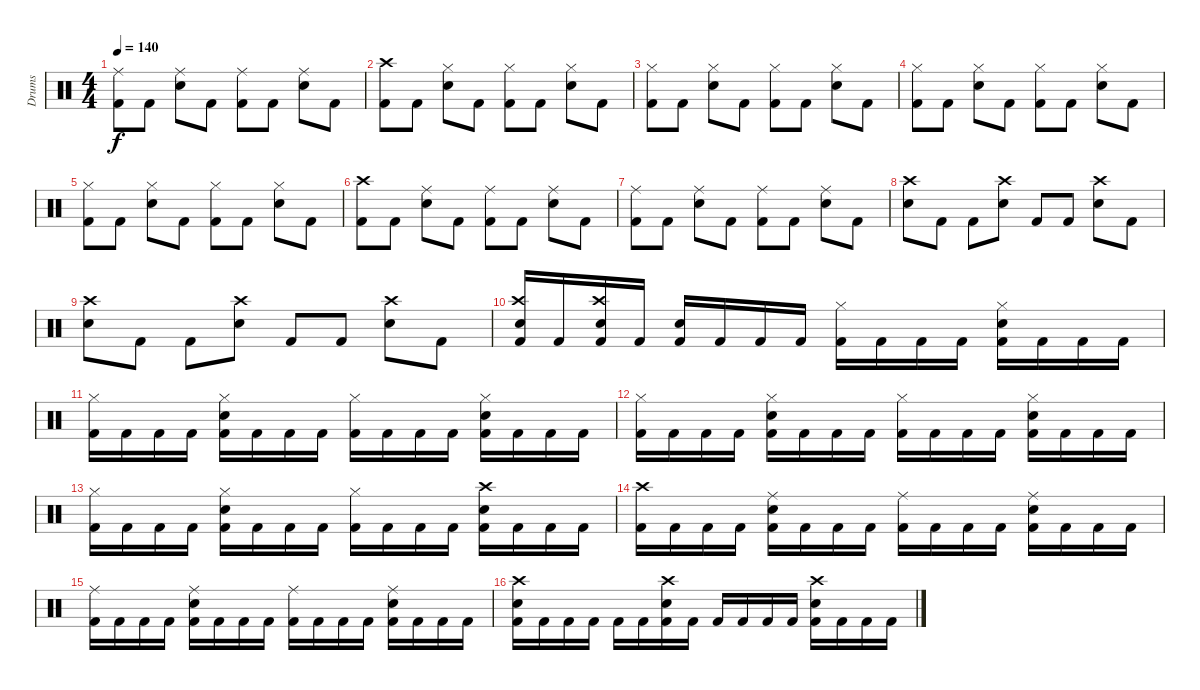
\track ("Drums" "Drums") {instrument percussion}
\staff {score}
\articulation defaults
\ts (4 4)
\tempo 140
\clef neutral
\ks c
("Ride (middle)" "Kick (hit) 2").8{dy f} "Kick (hit) 2".8 ("Ride (middle)" "Electric Snare (hit)").8 "Kick (hit) 2".8 ("Ride (middle)" "Kick (hit) 2").8 "Kick (hit) 2".8 ("Ride (middle)" "Electric Snare (hit)").8 "Kick (hit) 2".8 |
("Crash high (hit)" "Kick (hit) 2").8 "Kick (hit) 2".8 ("Hi-Hat (closed)" "Electric Snare (hit)").8 "Kick (hit) 2".8 ("Hi-Hat (closed)" "Kick (hit) 2").8 "Kick (hit) 2".8 ("Hi-Hat (closed)" "Electric Snare (hit)").8 "Kick (hit) 2".8 |
("Hi-Hat (closed)" "Kick (hit) 2").8 "Kick (hit) 2".8 ("Hi-Hat (closed)" "Electric Snare (hit)").8 "Kick (hit) 2".8 ("Hi-Hat (closed)" "Kick (hit) 2").8 "Kick (hit) 2".8 ("Hi-Hat (closed)" "Electric Snare (hit)").8 "Kick (hit) 2".8 |
("Hi-Hat (closed)" "Kick (hit) 2").8 "Kick (hit) 2".8 ("Hi-Hat (closed)" "Electric Snare (hit)").8 "Kick (hit) 2".8 ("Hi-Hat (closed)" "Kick (hit) 2").8 "Kick (hit) 2".8 ("Hi-Hat (closed)" "Electric Snare (hit)").8 "Kick (hit) 2".8 |
("Hi-Hat (closed)" "Kick (hit) 2").8 "Kick (hit) 2".8 ("Hi-Hat (closed)" "Electric Snare (hit)").8 "Kick (hit) 2".8 ("Hi-Hat (closed)" "Kick (hit) 2").8 "Kick (hit) 2".8 ("Hi-Hat (closed)" "Electric Snare (hit)").8 "Kick (hit) 2".8 |
("Crash high (hit)" "Kick (hit) 2").8 "Kick (hit) 2".8 ("Ride (middle)" "Electric Snare (hit)").8 "Kick (hit) 2".8 ("Ride (middle)" "Kick (hit) 2").8 "Kick (hit) 2".8 ("Ride (middle)" "Electric Snare (hit)").8 "Kick (hit) 2".8 |
("Ride (middle)" "Kick (hit) 2").8 "Kick (hit) 2".8 ("Ride (middle)" "Electric Snare (hit)").8 "Kick (hit) 2".8 ("Ride (middle)" "Kick (hit) 2").8 "Kick (hit) 2".8 ("Ride (middle)" "Electric Snare (hit)").8 "Kick (hit) 2".8 |
("Crash high (hit)" "Electric Snare (hit)").8 "Kick (hit) 2".8 "Kick (hit) 2".8 ("Crash high (hit)" "Electric Snare (hit)").8 "Kick (hit) 2".8 "Kick (hit) 2".8 ("Crash high (hit)" "Electric Snare (hit)").8 "Kick (hit) 2".8 |
("Crash high (hit)" "Electric Snare (hit)").8 "Kick (hit) 2".8 "Kick (hit) 2".8 ("Crash high (hit)" "Electric Snare (hit)").8 "Kick (hit) 2".8 "Kick (hit) 2".8 ("Crash high (hit)" "Electric Snare (hit)").8 "Kick (hit) 2".8 |
("Crash high (hit)" "Snare (hit) 2" "Kick (hit) 2").16 "Kick (hit) 2".16 ("Crash high (hit)" "Snare (hit) 2" "Kick (hit) 2").16 "Kick (hit) 2".16 ("Electric Snare (hit)" "Kick (hit) 2").16 "Kick (hit) 2".16 "Kick (hit) 2".16 "Kick (hit) 2".16 ("Hi-Hat (closed)" "Kick (hit) 2").16 "Kick (hit) 2".16 "Kick (hit) 2".16 "Kick (hit) 2".16 ("Hi-Hat (closed)" "Electric Snare (hit)" "Kick (hit) 2").16 "Kick (hit) 2".16 "Kick (hit) 2".16 "Kick (hit) 2".16 |
("Hi-Hat (closed)" "Kick (hit) 2").16 "Kick (hit) 2".16 "Kick (hit) 2".16 "Kick (hit) 2".16 ("Hi-Hat (closed)" "Electric Snare (hit)" "Kick (hit) 2").16 "Kick (hit) 2".16 "Kick (hit) 2".16 "Kick (hit) 2".16 ("Hi-Hat (closed)" "Kick (hit) 2").16 "Kick (hit) 2".16 "Kick (hit) 2".16 "Kick (hit) 2".16 ("Hi-Hat (closed)" "Electric Snare (hit)" "Kick (hit) 2").16 "Kick (hit) 2".16 "Kick (hit) 2".16 "Kick (hit) 2".16 |
("Hi-Hat (closed)" "Kick (hit) 2").16 "Kick (hit) 2".16 "Kick (hit) 2".16 "Kick (hit) 2".16 ("Hi-Hat (closed)" "Electric Snare (hit)" "Kick (hit) 2").16 "Kick (hit) 2".16 "Kick (hit) 2".16 "Kick (hit) 2".16 ("Hi-Hat (closed)" "Kick (hit) 2").16 "Kick (hit) 2".16 "Kick (hit) 2".16 "Kick (hit) 2".16 ("Hi-Hat (closed)" "Electric Snare (hit)" "Kick (hit) 2").16 "Kick (hit) 2".16 "Kick (hit) 2".16 "Kick (hit) 2".16 |
("Hi-Hat (closed)" "Kick (hit) 2").16 "Kick (hit) 2".16 "Kick (hit) 2".16 "Kick (hit) 2".16 ("Hi-Hat (closed)" "Electric Snare (hit)" "Kick (hit) 2").16 "Kick (hit) 2".16 "Kick (hit) 2".16 "Kick (hit) 2".16 ("Hi-Hat (closed)" "Kick (hit) 2").16 "Kick (hit) 2".16 "Kick (hit) 2".16 "Kick (hit) 2".16 ("Crash high (hit)" "Electric Snare (hit)" "Kick (hit) 2").16 "Kick (hit) 2".16 "Kick (hit) 2".16 "Kick (hit) 2".16 |
("Crash high (hit)" "Kick (hit) 2").16 "Kick (hit) 2".16 "Kick (hit) 2".16 "Kick (hit) 2".16 ("Ride (middle)" "Electric Snare (hit)" "Kick (hit) 2").16 "Kick (hit) 2".16 "Kick (hit) 2".16 "Kick (hit) 2".16 ("Ride (middle)" "Kick (hit) 2").16 "Kick (hit) 2".16 "Kick (hit) 2".16 "Kick (hit) 2".16 ("Ride (middle)" "Electric Snare (hit)" "Kick (hit) 2").16 "Kick (hit) 2".16 "Kick (hit) 2".16 "Kick (hit) 2".16 |
("Ride (middle)" "Kick (hit) 2").16 "Kick (hit) 2".16 "Kick (hit) 2".16 "Kick (hit) 2".16 ("Ride (middle)" "Electric Snare (hit)" "Kick (hit) 2").16 "Kick (hit) 2".16 "Kick (hit) 2".16 "Kick (hit) 2".16 ("Ride (middle)" "Kick (hit) 2").16 "Kick (hit) 2".16 "Kick (hit) 2".16 "Kick (hit) 2".16 ("Ride (middle)" "Electric Snare (hit)" "Kick (hit) 2").16 "Kick (hit) 2".16 "Kick (hit) 2".16 "Kick (hit) 2".16 |
("Crash high (hit)" "Electric Snare (hit)" "Kick (hit) 2").16 "Kick (hit) 2".16 "Kick (hit) 2".16 "Kick (hit) 2".16 "Kick (hit) 2".16 "Kick (hit) 2".16 ("Crash high (hit)" "Electric Snare (hit)" "Kick (hit) 2").16 "Kick (hit) 2".16 "Kick (hit) 2".16 "Kick (hit) 2".16 "Kick (hit) 2".16 "Kick (hit) 2".16 ("Crash high (hit)" "Electric Snare (hit)" "Kick (hit) 2").16 "Kick (hit) 2".16 "Kick (hit) 2".16 "Kick (hit) 2".16
